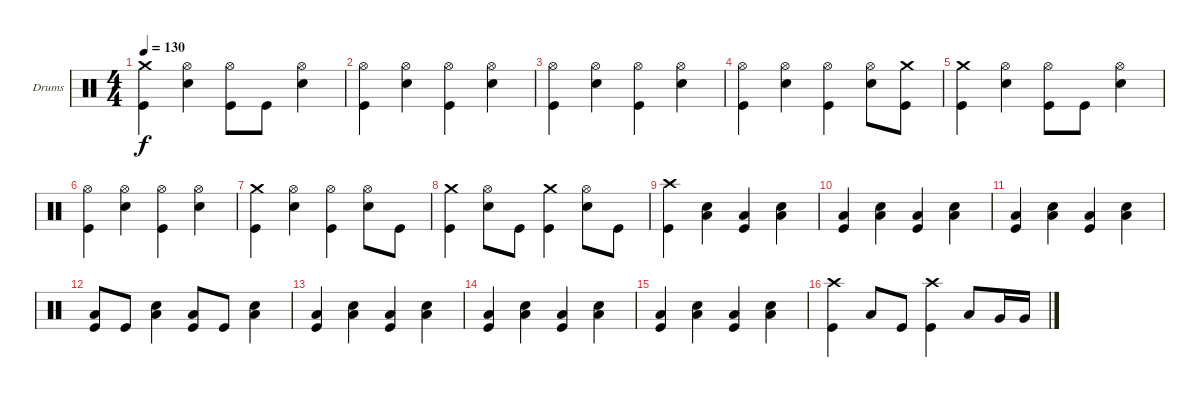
\defaultSystemsLayout 4
\bracketExtendMode groupsimilarinstruments
\firstSystemTrackNameOrientation horizontal
\otherSystemsTrackNameOrientation horizontal
\track ("Drumkit" "Drums") {instrument percussion}
\staff {score}
\articulation defaults
\ts (4 4)
\scale
0.212625
\tempo 130
\accidentals auto
\clef neutral
\ottava regular
\simile none
\scale
0.333333
\ks c
("Crash medium (hit)" "Kick (hit)").4{dy f} ("Hi-Hat (open)" "Snare (hit) 2").4 ("Hi-Hat (open)" "Kick (hit)").8 "Kick (hit)".8 ("Hi-Hat (open)" "Snare (hit) 2").4 |
\scale
0.590843
\scale
0.333333 ("Hi-Hat (open)" "Kick (hit)").4 ("Hi-Hat (open)" "Snare (hit) 2").4 ("Hi-Hat (open)" "Kick (hit)").4 ("Hi-Hat (open)" "Snare (hit) 2").4 |
\scale
0.0903095
\scale
0.333333 ("Hi-Hat (open)" "Kick (hit)").4 ("Hi-Hat (open)" "Snare (hit) 2").4 ("Hi-Hat (open)" "Kick (hit)").4 ("Hi-Hat (open)" "Snare (hit) 2").4 |
\scale
0.106272
\scale
0.333333 ("Hi-Hat (open)" "Kick (hit)").4 ("Hi-Hat (open)" "Snare (hit) 2").4 ("Hi-Hat (open)" "Kick (hit)").4 ("Hi-Hat (open)" "Snare (hit) 2").8 ("Crash medium (hit)" "Kick (hit)").8 |
\scale
0.333333 ("Crash medium (hit)" "Kick (hit)").4 ("Hi-Hat (open)" "Snare (hit) 2").4 ("Hi-Hat (open)" "Kick (hit)").8 "Kick (hit)".8 ("Hi-Hat (open)" "Snare (hit) 2").4 |
\scale
0.333333 ("Hi-Hat (open)" "Kick (hit)").4 ("Hi-Hat (open)" "Snare (hit) 2").4 ("Hi-Hat (open)" "Kick (hit)").4 ("Hi-Hat (open)" "Snare (hit) 2").4 |
\scale
0.333333 ("Crash medium (hit)" "Kick (hit)").4 ("Hi-Hat (open)" "Snare (hit) 2").4 ("Hi-Hat (open)" "Kick (hit)").4 ("Hi-Hat (open)" "Snare (hit) 2").8 "Kick (hit)".8 |
\scale
0.333333 ("Crash medium (hit)" "Kick (hit)").4 ("Hi-Hat (open)" "Snare (hit) 2").8 "Kick (hit)".8 ("Crash medium (hit)" "Kick (hit)").4 ("Hi-Hat (open)" "Snare (hit) 2").8 "Kick (hit)".8 |
\scale
0.333333 ("Crash high (hit)" "Kick (hit)").4 ("Low Tom (hit)" "Snare (hit) 2").4 ("Low Tom (hit)" "Kick (hit)").4 ("Low Tom (hit)" "Snare (hit) 2").4 |
\scale
0.333333 ("Low Tom (hit)" "Kick (hit)").4 ("Low Tom (hit)" "Snare (hit) 2").4 ("Low Tom (hit)" "Kick (hit)").4 ("Low Tom (hit)" "Snare (hit) 2").4 |
\scale
0.333333 ("Low Tom (hit)" "Kick (hit)").4 ("Low Tom (hit)" "Snare (hit) 2").4 ("Low Tom (hit)" "Kick (hit)").4 ("Low Tom (hit)" "Snare (hit) 2").4 |
\scale
0.333333 ("Low Tom (hit)" "Kick (hit)").8 "Kick (hit)".8 ("Low Tom (hit)" "Snare (hit) 2").4 ("Low Tom (hit)" "Kick (hit)").8 "Kick (hit)".8 ("Low Tom (hit)" "Snare (hit) 2").4 |
\scale
0.333333 ("Low Tom (hit)" "Kick (hit)").4 ("Low Tom (hit)" "Snare (hit) 2").4 ("Low Tom (hit)" "Kick (hit)").4 ("Low Tom (hit)" "Snare (hit) 2").4 |
\scale
0.333333 ("Low Tom (hit)" "Kick (hit)").4 ("Low Tom (hit)" "Snare (hit) 2").4 ("Low Tom (hit)" "Kick (hit)").4 ("Low Tom (hit)" "Snare (hit) 2").4 |
\scale
0.333333 ("Low Tom (hit)" "Kick (hit)").4 ("Low Tom (hit)" "Snare (hit) 2").4 ("Low Tom (hit)" "Kick (hit)").4 ("Low Tom (hit)" "Snare (hit) 2").4 |
\scale
0.333333 ("Crash high (hit)" "Kick (hit)").4 "Low Tom (hit)".8 "Kick (hit)".8 ("Crash high (hit)" "Kick (hit)").4 "Low Tom (hit)".8 "Very Low Tom (hit)".16 "Very Low Tom (hit)".16
